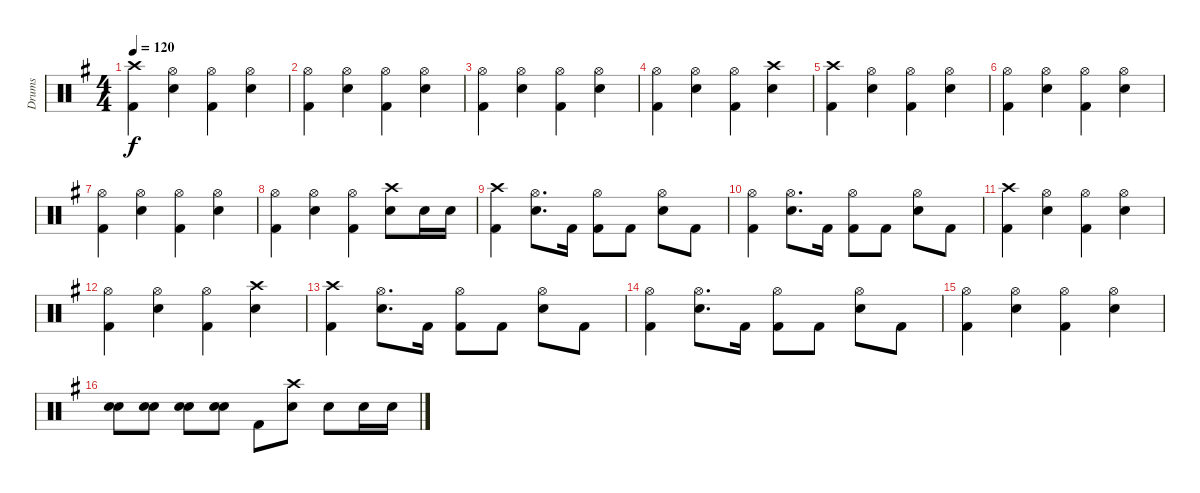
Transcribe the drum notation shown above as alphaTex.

\track ("Drums" "Drums") {instrument percussion}
\staff {score}
\articulation defaults
\ts (4 4)
\tempo 120
\clef neutral
\ks g
("Crash high (hit)" "Kick (hit) 2").4{dy f} ("Hi-Hat (open)" "Snare (hit) 2").4 ("Hi-Hat (open)" "Kick (hit) 2").4 ("Hi-Hat (open)" "Snare (hit) 2").4 |
("Hi-Hat (open)" "Kick (hit) 2").4 ("Hi-Hat (open)" "Snare (hit) 2").4 ("Hi-Hat (open)" "Kick (hit) 2").4 ("Hi-Hat (open)" "Snare (hit) 2").4 |
("Hi-Hat (open)" "Kick (hit) 2").4 ("Hi-Hat (open)" "Snare (hit) 2").4 ("Hi-Hat (open)" "Kick (hit) 2").4 ("Hi-Hat (open)" "Snare (hit) 2").4 |
("Hi-Hat (open)" "Kick (hit) 2").4 ("Hi-Hat (open)" "Snare (hit) 2").4 ("Hi-Hat (open)" "Kick (hit) 2").4 ("Crash high (hit)" "Snare (hit) 2").4 |
("Crash high (hit)" "Kick (hit) 2").4 ("Hi-Hat (open)" "Snare (hit) 2").4 ("Hi-Hat (open)" "Kick (hit) 2").4 ("Hi-Hat (open)" "Snare (hit) 2").4 |
("Hi-Hat (open)" "Kick (hit) 2").4 ("Hi-Hat (open)" "Snare (hit) 2").4 ("Hi-Hat (open)" "Kick (hit) 2").4 ("Hi-Hat (open)" "Snare (hit) 2").4 |
("Hi-Hat (open)" "Kick (hit) 2").4 ("Hi-Hat (open)" "Snare (hit) 2").4 ("Hi-Hat (open)" "Kick (hit) 2").4 ("Hi-Hat (open)" "Snare (hit) 2").4 |
("Hi-Hat (open)" "Kick (hit) 2").4 ("Hi-Hat (open)" "Snare (hit) 2").4 ("Hi-Hat (open)" "Kick (hit) 2").4 ("Crash high (hit)" "Snare (hit) 2").8 "Snare (hit) 2".16 "Snare (hit) 2".16 |
("Crash high (hit)" "Kick (hit) 2").4 ("Hi-Hat (open)" "Snare (hit) 2").8{d} "Kick (hit) 2".16 ("Hi-Hat (open)" "Kick (hit) 2").8 "Kick (hit) 2".8 ("Hi-Hat (open)" "Snare (hit) 2").8 "Kick (hit) 2".8 |
("Hi-Hat (open)" "Kick (hit) 2").4 ("Hi-Hat (open)" "Snare (hit) 2").8{d} "Kick (hit) 2".16 ("Hi-Hat (open)" "Kick (hit) 2").8 "Kick (hit) 2".8 ("Hi-Hat (open)" "Snare (hit) 2").8 "Kick (hit) 2".8 |
("Crash high (hit)" "Kick (hit) 2").4 ("Hi-Hat (open)" "Snare (hit) 2").4 ("Hi-Hat (open)" "Kick (hit) 2").4 ("Hi-Hat (open)" "Snare (hit) 2").4 |
("Hi-Hat (open)" "Kick (hit) 2").4 ("Hi-Hat (open)" "Snare (hit) 2").4 ("Hi-Hat (open)" "Kick (hit) 2").4 ("Crash high (hit)" "Snare (hit) 2").4 |
("Crash high (hit)" "Kick (hit) 2").4 ("Hi-Hat (open)" "Snare (hit) 2").8{d} "Kick (hit) 2".16 ("Hi-Hat (open)" "Kick (hit) 2").8 "Kick (hit) 2".8 ("Hi-Hat (open)" "Snare (hit) 2").8 "Kick (hit) 2".8 |
("Hi-Hat (open)" "Kick (hit) 2").4 ("Hi-Hat (open)" "Snare (hit) 2").8{d} "Kick (hit) 2".16 ("Hi-Hat (open)" "Kick (hit) 2").8 "Kick (hit) 2".8 ("Hi-Hat (open)" "Snare (hit) 2").8 "Kick (hit) 2".8 |
("Hi-Hat (open)" "Kick (hit) 2").4 ("Hi-Hat (open)" "Snare (hit) 2").4 ("Hi-Hat (open)" "Kick (hit) 2").4 ("Hi-Hat (open)" "Snare (hit) 2").4 |
("Snare (hit) 2" "Snare (hit) 2").8 ("Snare (hit) 2" "Snare (hit) 2").8 ("Snare (hit) 2" "Snare (hit) 2").8 ("Snare (hit) 2" "Snare (hit) 2").8 "Kick (hit) 2".8 ("Crash high (hit)" "Snare (hit) 2").8 "Snare (hit) 2".8 "Snare (hit) 2".16 "Snare (hit) 2".16
